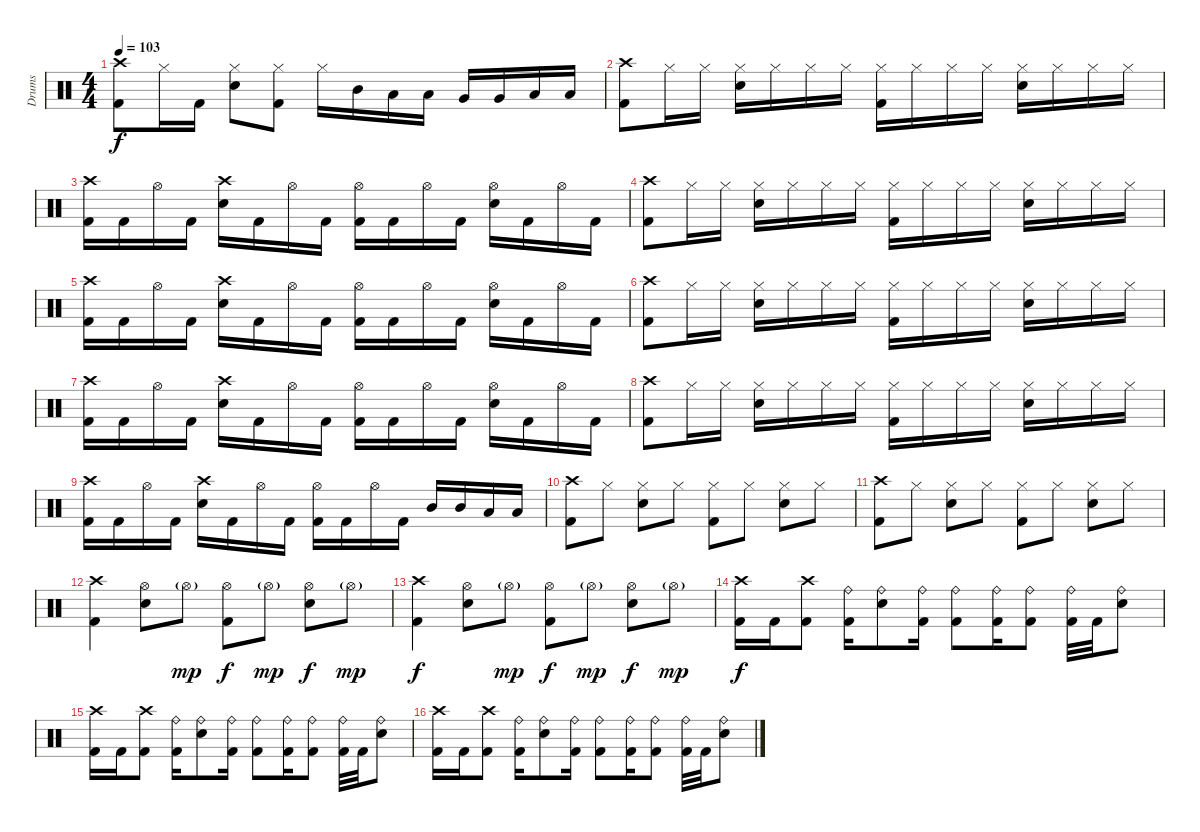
\track ("Drums" "Drums") {instrument percussion}
\staff {score}
\articulation defaults
\ts (4 4)
\tempo 103
\clef neutral
\ks c
("Crash high (hit)" "Kick (hit) 2").8{dy f} "Hi-Hat (closed)".16 "Kick (hit) 2".16 ("Hi-Hat (closed)" "Electric Snare (hit)").8 ("Hi-Hat (closed)" "Kick (hit) 2").8 "Hi-Hat (closed)".16 "Mid Tom (hit)".16 "Low Tom (hit)".16 "Low Tom (hit)".16 "Very Low Tom (hit)".16 "Very Low Tom (hit)".16 "Low Floor Tom (hit)".16 "Low Floor Tom (hit)".16 |
("Crash high (hit)" "Kick (hit) 2").8 "Hi-Hat (closed)".16 "Hi-Hat (closed)".16 ("Hi-Hat (closed)" "Electric Snare (hit)").16 "Hi-Hat (closed)".16 "Hi-Hat (closed)".16 "Hi-Hat (closed)".16 ("Hi-Hat (closed)" "Kick (hit) 2").16 "Hi-Hat (closed)".16 "Hi-Hat (closed)".16 "Hi-Hat (closed)".16 ("Hi-Hat (closed)" "Electric Snare (hit)").16 "Hi-Hat (closed)".16 "Hi-Hat (closed)".16 "Hi-Hat (closed)".16 |
("Crash high (hit)" "Kick (hit) 2").16 "Kick (hit) 2".16 "Hi-Hat (open)".16 "Kick (hit) 2".16 ("Crash high (hit)" "Electric Snare (hit)").16 "Kick (hit) 2".16 "Hi-Hat (open)".16 "Kick (hit) 2".16 ("Hi-Hat (open)" "Kick (hit) 2").16 "Kick (hit) 2".16 "Hi-Hat (open)".16 "Kick (hit) 2".16 ("Hi-Hat (open)" "Electric Snare (hit)").16 "Kick (hit) 2".16 "Hi-Hat (open)".16 "Kick (hit) 2".16 |
("Crash high (hit)" "Kick (hit) 2").8 "Hi-Hat (closed)".16 "Hi-Hat (closed)".16 ("Hi-Hat (closed)" "Electric Snare (hit)").16 "Hi-Hat (closed)".16 "Hi-Hat (closed)".16 "Hi-Hat (closed)".16 ("Hi-Hat (closed)" "Kick (hit) 2").16 "Hi-Hat (closed)".16 "Hi-Hat (closed)".16 "Hi-Hat (closed)".16 ("Hi-Hat (closed)" "Electric Snare (hit)").16 "Hi-Hat (closed)".16 "Hi-Hat (closed)".16 "Hi-Hat (closed)".16 |
("Crash high (hit)" "Kick (hit) 2").16 "Kick (hit) 2".16 "Hi-Hat (open)".16 "Kick (hit) 2".16 ("Crash high (hit)" "Electric Snare (hit)").16 "Kick (hit) 2".16 "Hi-Hat (open)".16 "Kick (hit) 2".16 ("Hi-Hat (open)" "Kick (hit) 2").16 "Kick (hit) 2".16 "Hi-Hat (open)".16 "Kick (hit) 2".16 ("Hi-Hat (open)" "Electric Snare (hit)").16 "Kick (hit) 2".16 "Hi-Hat (open)".16 "Kick (hit) 2".16 |
("Crash high (hit)" "Kick (hit) 2").8 "Hi-Hat (closed)".16 "Hi-Hat (closed)".16 ("Hi-Hat (closed)" "Electric Snare (hit)").16 "Hi-Hat (closed)".16 "Hi-Hat (closed)".16 "Hi-Hat (closed)".16 ("Hi-Hat (closed)" "Kick (hit) 2").16 "Hi-Hat (closed)".16 "Hi-Hat (closed)".16 "Hi-Hat (closed)".16 ("Hi-Hat (closed)" "Electric Snare (hit)").16 "Hi-Hat (closed)".16 "Hi-Hat (closed)".16 "Hi-Hat (closed)".16 |
("Crash high (hit)" "Kick (hit) 2").16 "Kick (hit) 2".16 "Hi-Hat (open)".16 "Kick (hit) 2".16 ("Crash high (hit)" "Electric Snare (hit)").16 "Kick (hit) 2".16 "Hi-Hat (open)".16 "Kick (hit) 2".16 ("Hi-Hat (open)" "Kick (hit) 2").16 "Kick (hit) 2".16 "Hi-Hat (open)".16 "Kick (hit) 2".16 ("Hi-Hat (open)" "Electric Snare (hit)").16 "Kick (hit) 2".16 "Hi-Hat (open)".16 "Kick (hit) 2".16 |
("Crash high (hit)" "Kick (hit) 2").8 "Hi-Hat (closed)".16 "Hi-Hat (closed)".16 ("Hi-Hat (closed)" "Electric Snare (hit)").16 "Hi-Hat (closed)".16 "Hi-Hat (closed)".16 "Hi-Hat (closed)".16 ("Hi-Hat (closed)" "Kick (hit) 2").16 "Hi-Hat (closed)".16 "Hi-Hat (closed)".16 "Hi-Hat (closed)".16 ("Hi-Hat (closed)" "Electric Snare (hit)").16 "Hi-Hat (closed)".16 "Hi-Hat (closed)".16 "Hi-Hat (closed)".16 |
("Crash high (hit)" "Kick (hit) 2").16 "Kick (hit) 2".16 "Hi-Hat (open)".16 "Kick (hit) 2".16 ("Crash high (hit)" "Electric Snare (hit)").16 "Kick (hit) 2".16 "Hi-Hat (open)".16 "Kick (hit) 2".16 ("Hi-Hat (open)" "Kick (hit) 2").16 "Kick (hit) 2".16 "Hi-Hat (open)".16 "Kick (hit) 2".16 "Mid Tom (hit)".16 "Mid Tom (hit)".16 "Low Tom (hit)".16 "Low Tom (hit)".16 |
("Crash high (hit)" "Kick (hit) 2").8 "Hi-Hat (closed)".8 ("Hi-Hat (closed)" "Electric Snare (hit)").8 "Hi-Hat (closed)".8 ("Hi-Hat (closed)" "Kick (hit) 2").8 "Hi-Hat (closed)".8 ("Hi-Hat (closed)" "Electric Snare (hit)").8 "Hi-Hat (closed)".8 |
("Crash high (hit)" "Kick (hit) 2").8 "Hi-Hat (closed)".8 ("Hi-Hat (closed)" "Electric Snare (hit)").8 "Hi-Hat (closed)".8 ("Hi-Hat (closed)" "Kick (hit) 2").8 "Hi-Hat (closed)".8 ("Hi-Hat (closed)" "Electric Snare (hit)").8 "Hi-Hat (closed)".8 |
("Crash high (hit)" "Kick (hit) 2").4 ("Hi-Hat (open)" "Electric Snare (hit)").8 "Hi-Hat (open)"{g}.8{dy mp} ("Hi-Hat (open)" "Kick (hit) 2").8{dy f} "Hi-Hat (open)"{g}.8{dy mp} ("Hi-Hat (open)" "Electric Snare (hit)").8{dy f} "Hi-Hat (open)"{g}.8{dy mp} |
("Crash high (hit)" "Kick (hit) 2").4{dy f} ("Hi-Hat (open)" "Electric Snare (hit)").8 "Hi-Hat (open)"{g}.8{dy mp} ("Hi-Hat (open)" "Kick (hit) 2").8{dy f} "Hi-Hat (open)"{g}.8{dy mp} ("Hi-Hat (open)" "Electric Snare (hit)").8{dy f} "Hi-Hat (open)"{g}.8{dy mp} |
("Crash high (hit)" "Kick (hit) 2").16{dy f} "Kick (hit) 2".16 ("Crash high (hit)" "Kick (hit) 2").8 ("Ride (bell)" "Kick (hit) 2").16 ("Ride (bell)" "Electric Snare (hit)").8 ("Ride (bell)" "Kick (hit) 2").16 ("Ride (bell)" "Kick (hit) 2").8 ("Ride (bell)" "Kick (hit) 2").16 ("Ride (bell)" "Kick (hit) 2").8 ("Ride (bell)" "Kick (hit) 2").32 "Kick (hit) 2".32 ("Ride (bell)" "Electric Snare (hit)").8 |
("Crash high (hit)" "Kick (hit) 2").16 "Kick (hit) 2".16 ("Crash high (hit)" "Kick (hit) 2").8 ("Ride (bell)" "Kick (hit) 2").16 ("Ride (bell)" "Electric Snare (hit)").8 ("Ride (bell)" "Kick (hit) 2").16 ("Ride (bell)" "Kick (hit) 2").8 ("Ride (bell)" "Kick (hit) 2").16 ("Ride (bell)" "Kick (hit) 2").8 ("Ride (bell)" "Kick (hit) 2").32 "Kick (hit) 2".32 ("Ride (bell)" "Electric Snare (hit)").8 |
("Crash high (hit)" "Kick (hit) 2").16 "Kick (hit) 2".16 ("Crash high (hit)" "Kick (hit) 2").8 ("Ride (bell)" "Kick (hit) 2").16 ("Ride (bell)" "Electric Snare (hit)").8 ("Ride (bell)" "Kick (hit) 2").16 ("Ride (bell)" "Kick (hit) 2").8 ("Ride (bell)" "Kick (hit) 2").16 ("Ride (bell)" "Kick (hit) 2").8 ("Ride (bell)" "Kick (hit) 2").32 "Kick (hit) 2".32 ("Ride (bell)" "Electric Snare (hit)").8
